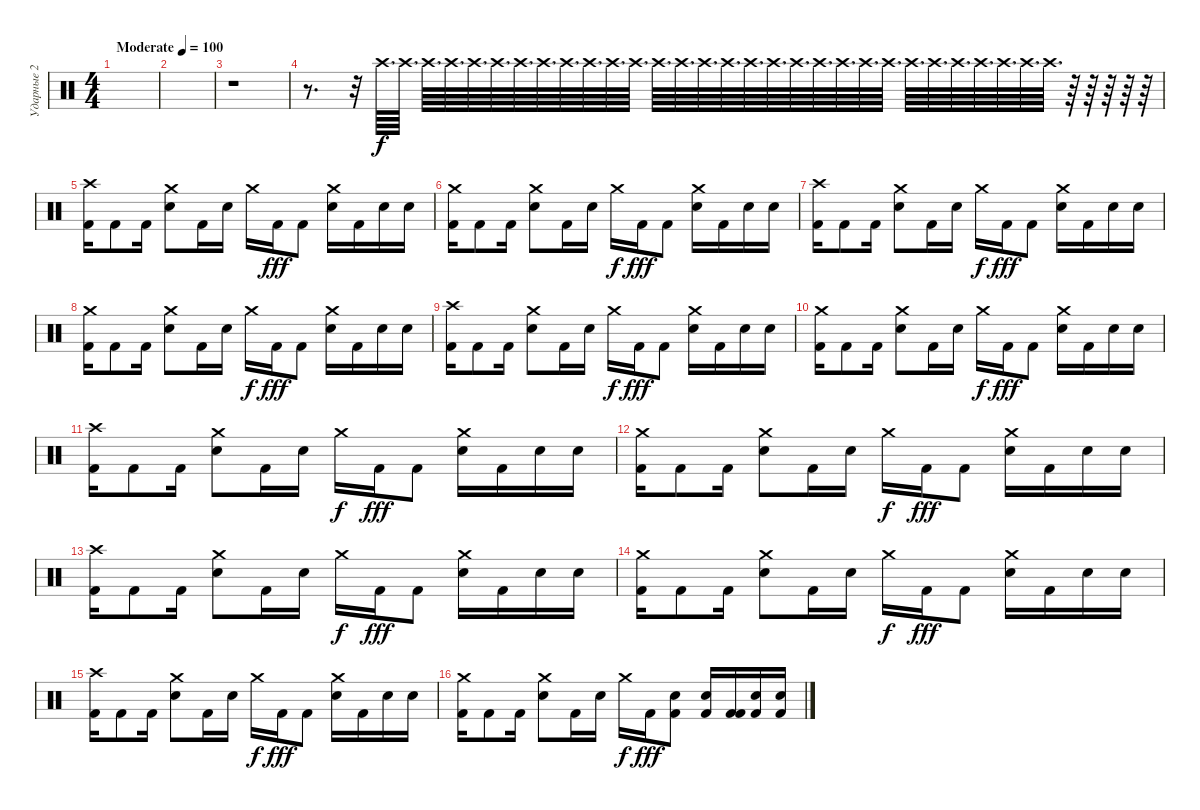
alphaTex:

\track ("Ударные 2" "Ударные 2") {instrument percussion}
\staff {score}
\articulation defaults
\ts (4 4)
\tempo (100 "Moderate")
\clef neutral
\ks c
|
|
r.1{volume 0} |
r.8{d} r.32{volume 16} "Crash high (hit)".64{d} "Crash high (hit)".64{d} "Crash high (hit)".64{d} "Crash high (hit)".64{d} "Crash high (hit)".64{d} "Crash high (hit)".64{d} "Crash high (hit)".64{d} "Crash high (hit)".64{d} "Crash high (hit)".64{d} "Crash high (hit)".64{d} "Crash high (hit)".64{d} "Crash high (hit)".64{d} "Crash high (hit)".64{d} "Crash high (hit)".64{d} "Crash high (hit)".64{d} "Crash high (hit)".64{d} "Crash high (hit)".64{d} "Crash high (hit)".64{d} "Crash high (hit)".64{d} "Crash high (hit)".64{d} "Crash high (hit)".64{d} "Crash high (hit)".64{d} "Crash high (hit)".64{d} "Crash high (hit)".64{d} "Crash high (hit)".64{d} "Crash high (hit)".64{d} "Crash high (hit)".64{d} "Crash high (hit)".64{d} "Crash high (hit)".64{d} "Crash high (hit)".64{d} r.64 r.64 r.64 r.64 r.64 |
("Kick (hit) 2" "Crash high (hit)").16 "Kick (hit) 2".8 "Kick (hit) 2".16 ("Snare (hit) 2" "Crash medium (hit)").8 "Kick (hit) 2".16 "Snare (hit) 2".16 "Crash medium (hit)".16{dy f} "Kick (hit) 2".16{dy fff} "Kick (hit) 2".8 ("Snare (hit) 2" "Crash medium (hit)").16 "Kick (hit) 2".16 "Snare (hit) 2".16 "Snare (hit) 2".16 |
("Kick (hit) 2" "Crash medium (hit)").16 "Kick (hit) 2".8 "Kick (hit) 2".16 ("Snare (hit) 2" "Crash medium (hit)").8 "Kick (hit) 2".16 "Snare (hit) 2".16 "Crash medium (hit)".16{dy f} "Kick (hit) 2".16{dy fff} "Kick (hit) 2".8 ("Snare (hit) 2" "Crash medium (hit)").16 "Kick (hit) 2".16 "Snare (hit) 2".16 "Snare (hit) 2".16 |
("Kick (hit) 2" "Crash high (hit)").16 "Kick (hit) 2".8 "Kick (hit) 2".16 ("Snare (hit) 2" "Crash medium (hit)").8 "Kick (hit) 2".16 "Snare (hit) 2".16 "Crash medium (hit)".16{dy f} "Kick (hit) 2".16{dy fff} "Kick (hit) 2".8 ("Snare (hit) 2" "Crash medium (hit)").16 "Kick (hit) 2".16 "Snare (hit) 2".16 "Snare (hit) 2".16 |
("Kick (hit) 2" "Crash medium (hit)").16 "Kick (hit) 2".8 "Kick (hit) 2".16 ("Snare (hit) 2" "Crash medium (hit)").8 "Kick (hit) 2".16 "Snare (hit) 2".16 "Crash medium (hit)".16{dy f} "Kick (hit) 2".16{dy fff} "Kick (hit) 2".8 ("Snare (hit) 2" "Crash medium (hit)").16 "Kick (hit) 2".16 "Snare (hit) 2".16 "Snare (hit) 2".16 |
("Kick (hit) 2" "Crash high (hit)").16 "Kick (hit) 2".8 "Kick (hit) 2".16 ("Snare (hit) 2" "Crash medium (hit)").8 "Kick (hit) 2".16 "Snare (hit) 2".16 "Crash medium (hit)".16{dy f} "Kick (hit) 2".16{dy fff} "Kick (hit) 2".8 ("Snare (hit) 2" "Crash medium (hit)").16 "Kick (hit) 2".16 "Snare (hit) 2".16 "Snare (hit) 2".16 |
("Kick (hit) 2" "Crash medium (hit)").16 "Kick (hit) 2".8 "Kick (hit) 2".16 ("Snare (hit) 2" "Crash medium (hit)").8 "Kick (hit) 2".16 "Snare (hit) 2".16 "Crash medium (hit)".16{dy f} "Kick (hit) 2".16{dy fff} "Kick (hit) 2".8 ("Snare (hit) 2" "Crash medium (hit)").16 "Kick (hit) 2".16 "Snare (hit) 2".16 "Snare (hit) 2".16 |
("Kick (hit) 2" "Crash high (hit)").16 "Kick (hit) 2".8 "Kick (hit) 2".16 ("Snare (hit) 2" "Crash medium (hit)").8 "Kick (hit) 2".16 "Snare (hit) 2".16 "Crash medium (hit)".16{dy f} "Kick (hit) 2".16{dy fff} "Kick (hit) 2".8 ("Snare (hit) 2" "Crash medium (hit)").16 "Kick (hit) 2".16 "Snare (hit) 2".16 "Snare (hit) 2".16 |
("Kick (hit) 2" "Crash medium (hit)").16 "Kick (hit) 2".8 "Kick (hit) 2".16 ("Snare (hit) 2" "Crash medium (hit)").8 "Kick (hit) 2".16 "Snare (hit) 2".16 "Crash medium (hit)".16{dy f} "Kick (hit) 2".16{dy fff} "Kick (hit) 2".8 ("Snare (hit) 2" "Crash medium (hit)").16 "Kick (hit) 2".16 "Snare (hit) 2".16 "Snare (hit) 2".16 |
("Kick (hit) 2" "Crash high (hit)").16 "Kick (hit) 2".8 "Kick (hit) 2".16 ("Snare (hit) 2" "Crash medium (hit)").8 "Kick (hit) 2".16 "Snare (hit) 2".16 "Crash medium (hit)".16{dy f} "Kick (hit) 2".16{dy fff} "Kick (hit) 2".8 ("Snare (hit) 2" "Crash medium (hit)").16 "Kick (hit) 2".16 "Snare (hit) 2".16 "Snare (hit) 2".16 |
("Kick (hit) 2" "Crash medium (hit)").16 "Kick (hit) 2".8 "Kick (hit) 2".16 ("Snare (hit) 2" "Crash medium (hit)").8 "Kick (hit) 2".16 "Snare (hit) 2".16 "Crash medium (hit)".16{dy f} "Kick (hit) 2".16{dy fff} "Kick (hit) 2".8 ("Snare (hit) 2" "Crash medium (hit)").16 "Kick (hit) 2".16 "Snare (hit) 2".16 "Snare (hit) 2".16 |
("Kick (hit) 2" "Crash high (hit)").16 "Kick (hit) 2".8 "Kick (hit) 2".16 ("Snare (hit) 2" "Crash medium (hit)").8 "Kick (hit) 2".16 "Snare (hit) 2".16 "Crash medium (hit)".16{dy f} "Kick (hit) 2".16{dy fff} "Kick (hit) 2".8 ("Snare (hit) 2" "Crash medium (hit)").16 "Kick (hit) 2".16 "Snare (hit) 2".16 "Snare (hit) 2".16 |
("Kick (hit) 2" "Crash medium (hit)").16 "Kick (hit) 2".8 "Kick (hit) 2".16 ("Snare (hit) 2" "Crash medium (hit)").8 "Kick (hit) 2".16 "Snare (hit) 2".16 "Crash medium (hit)".16{dy f} "Kick (hit) 2".16{dy fff} ("Kick (hit) 2" "Snare (hit) 2").8 ("Snare (hit) 2" "Kick (hit) 2").16 ("Kick (hit) 2" "Kick (hit) 2").16 ("Snare (hit) 2" "Kick (hit) 2").16 ("Snare (hit) 2" "Kick (hit) 2").16
